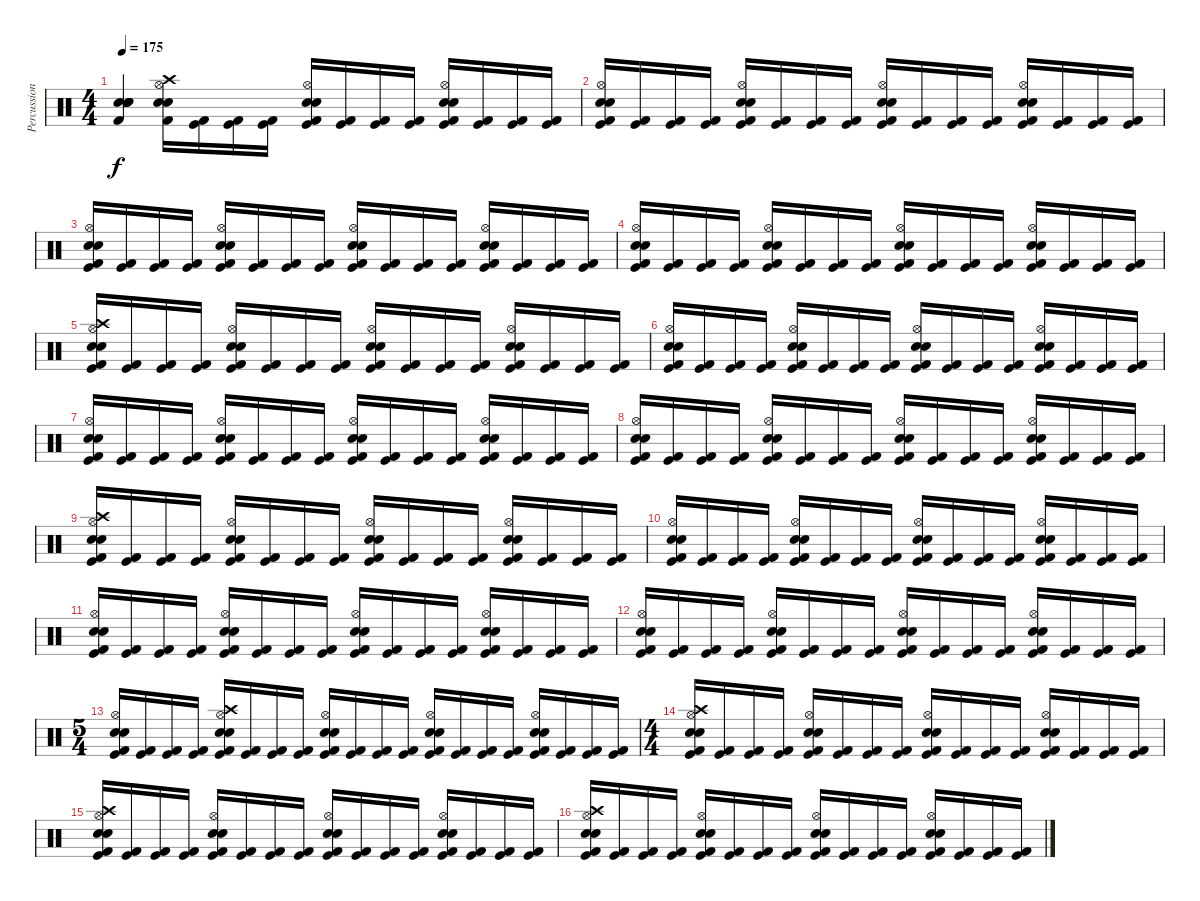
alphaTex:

\track ("Percussion" "Percussion") {instrument percussion}
\staff {score}
\articulation defaults
\ts (4 4)
\tempo 175
\clef neutral
\ks c
("Kick (hit) 2" "Electric Snare (hit)" "Electric Snare (hit)" "Electric Snare (hit)" "Electric Snare (hit)" "Snare (hit) 2").4{dy f} ("Crash high (hit)" "Hi-Hat (open)" "Electric Snare (hit)" "Snare (hit) 2" "Kick (hit) 2").16 ("Kick (hit) 2" "Kick (hit)").16 ("Kick (hit) 2" "Kick (hit)").16 ("Kick (hit) 2" "Kick (hit)").16 ("Hi-Hat (open)" "Electric Snare (hit)" "Snare (hit) 2" "Kick (hit) 2" "Kick (hit)").16 ("Kick (hit) 2" "Kick (hit)").16 ("Kick (hit) 2" "Kick (hit)").16 ("Kick (hit) 2" "Kick (hit)").16 ("Hi-Hat (open)" "Electric Snare (hit)" "Snare (hit) 2" "Kick (hit) 2" "Kick (hit)").16 ("Kick (hit) 2" "Kick (hit)").16 ("Kick (hit) 2" "Kick (hit)").16 ("Kick (hit) 2" "Kick (hit)").16 |
("Hi-Hat (open)" "Electric Snare (hit)" "Snare (hit) 2" "Kick (hit) 2" "Kick (hit)").16 ("Kick (hit) 2" "Kick (hit)").16 ("Kick (hit) 2" "Kick (hit)").16 ("Kick (hit) 2" "Kick (hit)").16 ("Hi-Hat (open)" "Electric Snare (hit)" "Snare (hit) 2" "Kick (hit) 2" "Kick (hit)").16 ("Kick (hit) 2" "Kick (hit)").16 ("Kick (hit) 2" "Kick (hit)").16 ("Kick (hit) 2" "Kick (hit)").16 ("Hi-Hat (open)" "Electric Snare (hit)" "Snare (hit) 2" "Kick (hit) 2" "Kick (hit)").16 ("Kick (hit) 2" "Kick (hit)").16 ("Kick (hit) 2" "Kick (hit)").16 ("Kick (hit) 2" "Kick (hit)").16 ("Hi-Hat (open)" "Electric Snare (hit)" "Snare (hit) 2" "Kick (hit) 2" "Kick (hit)").16 ("Kick (hit) 2" "Kick (hit)").16 ("Kick (hit) 2" "Kick (hit)").16 ("Kick (hit) 2" "Kick (hit)").16 |
("Hi-Hat (open)" "Electric Snare (hit)" "Snare (hit) 2" "Kick (hit) 2" "Kick (hit)").16 ("Kick (hit) 2" "Kick (hit)").16 ("Kick (hit) 2" "Kick (hit)").16 ("Kick (hit) 2" "Kick (hit)").16 ("Hi-Hat (open)" "Electric Snare (hit)" "Snare (hit) 2" "Kick (hit) 2" "Kick (hit)").16 ("Kick (hit) 2" "Kick (hit)").16 ("Kick (hit) 2" "Kick (hit)").16 ("Kick (hit) 2" "Kick (hit)").16 ("Hi-Hat (open)" "Electric Snare (hit)" "Snare (hit) 2" "Kick (hit) 2" "Kick (hit)").16 ("Kick (hit) 2" "Kick (hit)").16 ("Kick (hit) 2" "Kick (hit)").16 ("Kick (hit) 2" "Kick (hit)").16 ("Hi-Hat (open)" "Electric Snare (hit)" "Snare (hit) 2" "Kick (hit) 2" "Kick (hit)").16 ("Kick (hit) 2" "Kick (hit)").16 ("Kick (hit) 2" "Kick (hit)").16 ("Kick (hit) 2" "Kick (hit)").16 |
("Hi-Hat (open)" "Electric Snare (hit)" "Snare (hit) 2" "Kick (hit) 2" "Kick (hit)").16 ("Kick (hit) 2" "Kick (hit)").16 ("Kick (hit) 2" "Kick (hit)").16 ("Kick (hit) 2" "Kick (hit)").16 ("Hi-Hat (open)" "Electric Snare (hit)" "Snare (hit) 2" "Kick (hit) 2" "Kick (hit)").16 ("Kick (hit) 2" "Kick (hit)").16 ("Kick (hit) 2" "Kick (hit)").16 ("Kick (hit) 2" "Kick (hit)").16 ("Hi-Hat (open)" "Electric Snare (hit)" "Snare (hit) 2" "Kick (hit) 2" "Kick (hit)").16 ("Kick (hit) 2" "Kick (hit)").16 ("Kick (hit) 2" "Kick (hit)").16 ("Kick (hit) 2" "Kick (hit)").16 ("Hi-Hat (open)" "Electric Snare (hit)" "Snare (hit) 2" "Kick (hit) 2" "Kick (hit)").16 ("Kick (hit) 2" "Kick (hit)").16 ("Kick (hit) 2" "Kick (hit)").16 ("Kick (hit) 2" "Kick (hit)").16 |
("Crash high (hit)" "Hi-Hat (open)" "Electric Snare (hit)" "Snare (hit) 2" "Kick (hit) 2" "Kick (hit)").16 ("Kick (hit) 2" "Kick (hit)").16 ("Kick (hit) 2" "Kick (hit)").16 ("Kick (hit) 2" "Kick (hit)").16 ("Hi-Hat (open)" "Electric Snare (hit)" "Snare (hit) 2" "Kick (hit) 2" "Kick (hit)").16 ("Kick (hit) 2" "Kick (hit)").16 ("Kick (hit) 2" "Kick (hit)").16 ("Kick (hit) 2" "Kick (hit)").16 ("Hi-Hat (open)" "Electric Snare (hit)" "Snare (hit) 2" "Kick (hit) 2" "Kick (hit)").16 ("Kick (hit) 2" "Kick (hit)").16 ("Kick (hit) 2" "Kick (hit)").16 ("Kick (hit) 2" "Kick (hit)").16 ("Hi-Hat (open)" "Electric Snare (hit)" "Snare (hit) 2" "Kick (hit) 2" "Kick (hit)").16 ("Kick (hit) 2" "Kick (hit)").16 ("Kick (hit) 2" "Kick (hit)").16 ("Kick (hit) 2" "Kick (hit)").16 |
("Hi-Hat (open)" "Electric Snare (hit)" "Snare (hit) 2" "Kick (hit) 2" "Kick (hit)").16 ("Kick (hit) 2" "Kick (hit)").16 ("Kick (hit) 2" "Kick (hit)").16 ("Kick (hit) 2" "Kick (hit)").16 ("Hi-Hat (open)" "Electric Snare (hit)" "Snare (hit) 2" "Kick (hit) 2" "Kick (hit)").16 ("Kick (hit) 2" "Kick (hit)").16 ("Kick (hit) 2" "Kick (hit)").16 ("Kick (hit) 2" "Kick (hit)").16 ("Hi-Hat (open)" "Electric Snare (hit)" "Snare (hit) 2" "Kick (hit) 2" "Kick (hit)").16 ("Kick (hit) 2" "Kick (hit)").16 ("Kick (hit) 2" "Kick (hit)").16 ("Kick (hit) 2" "Kick (hit)").16 ("Hi-Hat (open)" "Electric Snare (hit)" "Snare (hit) 2" "Kick (hit) 2" "Kick (hit)").16 ("Kick (hit) 2" "Kick (hit)").16 ("Kick (hit) 2" "Kick (hit)").16 ("Kick (hit) 2" "Kick (hit)").16 |
("Hi-Hat (open)" "Electric Snare (hit)" "Snare (hit) 2" "Kick (hit) 2" "Kick (hit)").16 ("Kick (hit) 2" "Kick (hit)").16 ("Kick (hit) 2" "Kick (hit)").16 ("Kick (hit) 2" "Kick (hit)").16 ("Hi-Hat (open)" "Electric Snare (hit)" "Snare (hit) 2" "Kick (hit) 2" "Kick (hit)").16 ("Kick (hit) 2" "Kick (hit)").16 ("Kick (hit) 2" "Kick (hit)").16 ("Kick (hit) 2" "Kick (hit)").16 ("Hi-Hat (open)" "Electric Snare (hit)" "Snare (hit) 2" "Kick (hit) 2" "Kick (hit)").16 ("Kick (hit) 2" "Kick (hit)").16 ("Kick (hit) 2" "Kick (hit)").16 ("Kick (hit) 2" "Kick (hit)").16 ("Hi-Hat (open)" "Electric Snare (hit)" "Snare (hit) 2" "Kick (hit) 2" "Kick (hit)").16 ("Kick (hit) 2" "Kick (hit)").16 ("Kick (hit) 2" "Kick (hit)").16 ("Kick (hit) 2" "Kick (hit)").16 |
("Hi-Hat (open)" "Electric Snare (hit)" "Snare (hit) 2" "Kick (hit) 2" "Kick (hit)").16 ("Kick (hit) 2" "Kick (hit)").16 ("Kick (hit) 2" "Kick (hit)").16 ("Kick (hit) 2" "Kick (hit)").16 ("Hi-Hat (open)" "Electric Snare (hit)" "Snare (hit) 2" "Kick (hit) 2" "Kick (hit)").16 ("Kick (hit) 2" "Kick (hit)").16 ("Kick (hit) 2" "Kick (hit)").16 ("Kick (hit) 2" "Kick (hit)").16 ("Hi-Hat (open)" "Electric Snare (hit)" "Snare (hit) 2" "Kick (hit) 2" "Kick (hit)").16 ("Kick (hit) 2" "Kick (hit)").16 ("Kick (hit) 2" "Kick (hit)").16 ("Kick (hit) 2" "Kick (hit)").16 ("Hi-Hat (open)" "Electric Snare (hit)" "Snare (hit) 2" "Kick (hit) 2" "Kick (hit)").16 ("Kick (hit) 2" "Kick (hit)").16 ("Kick (hit) 2" "Kick (hit)").16 ("Kick (hit) 2" "Kick (hit)").16 |
("Crash high (hit)" "Hi-Hat (open)" "Electric Snare (hit)" "Snare (hit) 2" "Kick (hit) 2" "Kick (hit)").16 ("Kick (hit) 2" "Kick (hit)").16 ("Kick (hit) 2" "Kick (hit)").16 ("Kick (hit) 2" "Kick (hit)").16 ("Hi-Hat (open)" "Electric Snare (hit)" "Snare (hit) 2" "Kick (hit) 2" "Kick (hit)").16 ("Kick (hit) 2" "Kick (hit)").16 ("Kick (hit) 2" "Kick (hit)").16 ("Kick (hit) 2" "Kick (hit)").16 ("Hi-Hat (open)" "Electric Snare (hit)" "Snare (hit) 2" "Kick (hit) 2" "Kick (hit)").16 ("Kick (hit) 2" "Kick (hit)").16 ("Kick (hit) 2" "Kick (hit)").16 ("Kick (hit) 2" "Kick (hit)").16 ("Hi-Hat (open)" "Electric Snare (hit)" "Snare (hit) 2" "Kick (hit) 2" "Kick (hit)").16 ("Kick (hit) 2" "Kick (hit)").16 ("Kick (hit) 2" "Kick (hit)").16 ("Kick (hit) 2" "Kick (hit)").16 |
("Hi-Hat (open)" "Electric Snare (hit)" "Snare (hit) 2" "Kick (hit) 2" "Kick (hit)").16 ("Kick (hit) 2" "Kick (hit)").16 ("Kick (hit) 2" "Kick (hit)").16 ("Kick (hit) 2" "Kick (hit)").16 ("Hi-Hat (open)" "Electric Snare (hit)" "Snare (hit) 2" "Kick (hit) 2" "Kick (hit)").16 ("Kick (hit) 2" "Kick (hit)").16 ("Kick (hit) 2" "Kick (hit)").16 ("Kick (hit) 2" "Kick (hit)").16 ("Hi-Hat (open)" "Electric Snare (hit)" "Snare (hit) 2" "Kick (hit) 2" "Kick (hit)").16 ("Kick (hit) 2" "Kick (hit)").16 ("Kick (hit) 2" "Kick (hit)").16 ("Kick (hit) 2" "Kick (hit)").16 ("Hi-Hat (open)" "Electric Snare (hit)" "Snare (hit) 2" "Kick (hit) 2" "Kick (hit)").16 ("Kick (hit) 2" "Kick (hit)").16 ("Kick (hit) 2" "Kick (hit)").16 ("Kick (hit) 2" "Kick (hit)").16 |
("Hi-Hat (open)" "Electric Snare (hit)" "Snare (hit) 2" "Kick (hit) 2" "Kick (hit)").16 ("Kick (hit) 2" "Kick (hit)").16 ("Kick (hit) 2" "Kick (hit)").16 ("Kick (hit) 2" "Kick (hit)").16 ("Hi-Hat (open)" "Electric Snare (hit)" "Snare (hit) 2" "Kick (hit) 2" "Kick (hit)").16 ("Kick (hit) 2" "Kick (hit)").16 ("Kick (hit) 2" "Kick (hit)").16 ("Kick (hit) 2" "Kick (hit)").16 ("Hi-Hat (open)" "Electric Snare (hit)" "Snare (hit) 2" "Kick (hit) 2" "Kick (hit)").16 ("Kick (hit) 2" "Kick (hit)").16 ("Kick (hit) 2" "Kick (hit)").16 ("Kick (hit) 2" "Kick (hit)").16 ("Hi-Hat (open)" "Electric Snare (hit)" "Snare (hit) 2" "Kick (hit) 2" "Kick (hit)").16 ("Kick (hit) 2" "Kick (hit)").16 ("Kick (hit) 2" "Kick (hit)").16 ("Kick (hit) 2" "Kick (hit)").16 |
("Hi-Hat (open)" "Electric Snare (hit)" "Snare (hit) 2" "Kick (hit) 2" "Kick (hit)").16 ("Kick (hit) 2" "Kick (hit)").16 ("Kick (hit) 2" "Kick (hit)").16 ("Kick (hit) 2" "Kick (hit)").16 ("Hi-Hat (open)" "Electric Snare (hit)" "Snare (hit) 2" "Kick (hit) 2" "Kick (hit)").16 ("Kick (hit) 2" "Kick (hit)").16 ("Kick (hit) 2" "Kick (hit)").16 ("Kick (hit) 2" "Kick (hit)").16 ("Hi-Hat (open)" "Electric Snare (hit)" "Snare (hit) 2" "Kick (hit) 2" "Kick (hit)").16 ("Kick (hit) 2" "Kick (hit)").16 ("Kick (hit) 2" "Kick (hit)").16 ("Kick (hit) 2" "Kick (hit)").16 ("Hi-Hat (open)" "Electric Snare (hit)" "Snare (hit) 2" "Kick (hit) 2" "Kick (hit)").16 ("Kick (hit) 2" "Kick (hit)").16 ("Kick (hit) 2" "Kick (hit)").16 ("Kick (hit) 2" "Kick (hit)").16 |
\ts (5 4)
("Hi-Hat (open)" "Electric Snare (hit)" "Snare (hit) 2" "Kick (hit) 2" "Kick (hit)").16 ("Kick (hit) 2" "Kick (hit)").16 ("Kick (hit) 2" "Kick (hit)").16 ("Kick (hit) 2" "Kick (hit)").16 ("Crash high (hit)" "Hi-Hat (open)" "Electric Snare (hit)" "Snare (hit) 2" "Kick (hit) 2" "Kick (hit)").16 ("Kick (hit) 2" "Kick (hit)").16 ("Kick (hit) 2" "Kick (hit)").16 ("Kick (hit) 2" "Kick (hit)").16 ("Hi-Hat (open)" "Electric Snare (hit)" "Snare (hit) 2" "Kick (hit) 2" "Kick (hit)").16 ("Kick (hit) 2" "Kick (hit)").16 ("Kick (hit) 2" "Kick (hit)").16 ("Kick (hit) 2" "Kick (hit)").16 ("Hi-Hat (open)" "Electric Snare (hit)" "Snare (hit) 2" "Kick (hit) 2" "Kick (hit)").16 ("Kick (hit) 2" "Kick (hit)").16 ("Kick (hit) 2" "Kick (hit)").16 ("Kick (hit) 2" "Kick (hit)").16 ("Hi-Hat (open)" "Electric Snare (hit)" "Snare (hit) 2" "Kick (hit) 2" "Kick (hit)").16 ("Kick (hit) 2" "Kick (hit)").16 ("Kick (hit) 2" "Kick (hit)").16 ("Kick (hit) 2" "Kick (hit)").16 |
\ts (4 4)
("Crash high (hit)" "Hi-Hat (open)" "Electric Snare (hit)" "Snare (hit) 2" "Kick (hit) 2" "Kick (hit)").16 ("Kick (hit) 2" "Kick (hit)").16 ("Kick (hit) 2" "Kick (hit)").16 ("Kick (hit) 2" "Kick (hit)").16 ("Hi-Hat (open)" "Electric Snare (hit)" "Snare (hit) 2" "Kick (hit) 2" "Kick (hit)").16 ("Kick (hit) 2" "Kick (hit)").16 ("Kick (hit) 2" "Kick (hit)").16 ("Kick (hit) 2" "Kick (hit)").16 ("Hi-Hat (open)" "Electric Snare (hit)" "Snare (hit) 2" "Kick (hit) 2" "Kick (hit)").16 ("Kick (hit) 2" "Kick (hit)").16 ("Kick (hit) 2" "Kick (hit)").16 ("Kick (hit) 2" "Kick (hit)").16 ("Hi-Hat (open)" "Electric Snare (hit)" "Snare (hit) 2" "Kick (hit) 2" "Kick (hit)").16 ("Kick (hit) 2" "Kick (hit)").16 ("Kick (hit) 2" "Kick (hit)").16 ("Kick (hit) 2" "Kick (hit)").16 |
("Crash high (hit)" "Hi-Hat (open)" "Electric Snare (hit)" "Snare (hit) 2" "Kick (hit) 2" "Kick (hit)").16 ("Kick (hit) 2" "Kick (hit)").16 ("Kick (hit) 2" "Kick (hit)").16 ("Kick (hit) 2" "Kick (hit)").16 ("Hi-Hat (open)" "Electric Snare (hit)" "Snare (hit) 2" "Kick (hit) 2" "Kick (hit)").16 ("Kick (hit) 2" "Kick (hit)").16 ("Kick (hit) 2" "Kick (hit)").16 ("Kick (hit) 2" "Kick (hit)").16 ("Hi-Hat (open)" "Electric Snare (hit)" "Snare (hit) 2" "Kick (hit) 2" "Kick (hit)").16 ("Kick (hit) 2" "Kick (hit)").16 ("Kick (hit) 2" "Kick (hit)").16 ("Kick (hit) 2" "Kick (hit)").16 ("Hi-Hat (open)" "Electric Snare (hit)" "Snare (hit) 2" "Kick (hit) 2" "Kick (hit)").16 ("Kick (hit) 2" "Kick (hit)").16 ("Kick (hit) 2" "Kick (hit)").16 ("Kick (hit) 2" "Kick (hit)").16 |
("Crash high (hit)" "Hi-Hat (open)" "Electric Snare (hit)" "Snare (hit) 2" "Kick (hit) 2" "Kick (hit)").16 ("Kick (hit) 2" "Kick (hit)").16 ("Kick (hit) 2" "Kick (hit)").16 ("Kick (hit) 2" "Kick (hit)").16 ("Hi-Hat (open)" "Electric Snare (hit)" "Snare (hit) 2" "Kick (hit) 2" "Kick (hit)").16 ("Kick (hit) 2" "Kick (hit)").16 ("Kick (hit) 2" "Kick (hit)").16 ("Kick (hit) 2" "Kick (hit)").16 ("Hi-Hat (open)" "Electric Snare (hit)" "Snare (hit) 2" "Kick (hit) 2" "Kick (hit)").16 ("Kick (hit) 2" "Kick (hit)").16 ("Kick (hit) 2" "Kick (hit)").16 ("Kick (hit) 2" "Kick (hit)").16 ("Hi-Hat (open)" "Electric Snare (hit)" "Snare (hit) 2" "Kick (hit) 2" "Kick (hit)").16 ("Kick (hit) 2" "Kick (hit)").16 ("Kick (hit) 2" "Kick (hit)").16 ("Kick (hit) 2" "Kick (hit)").16
